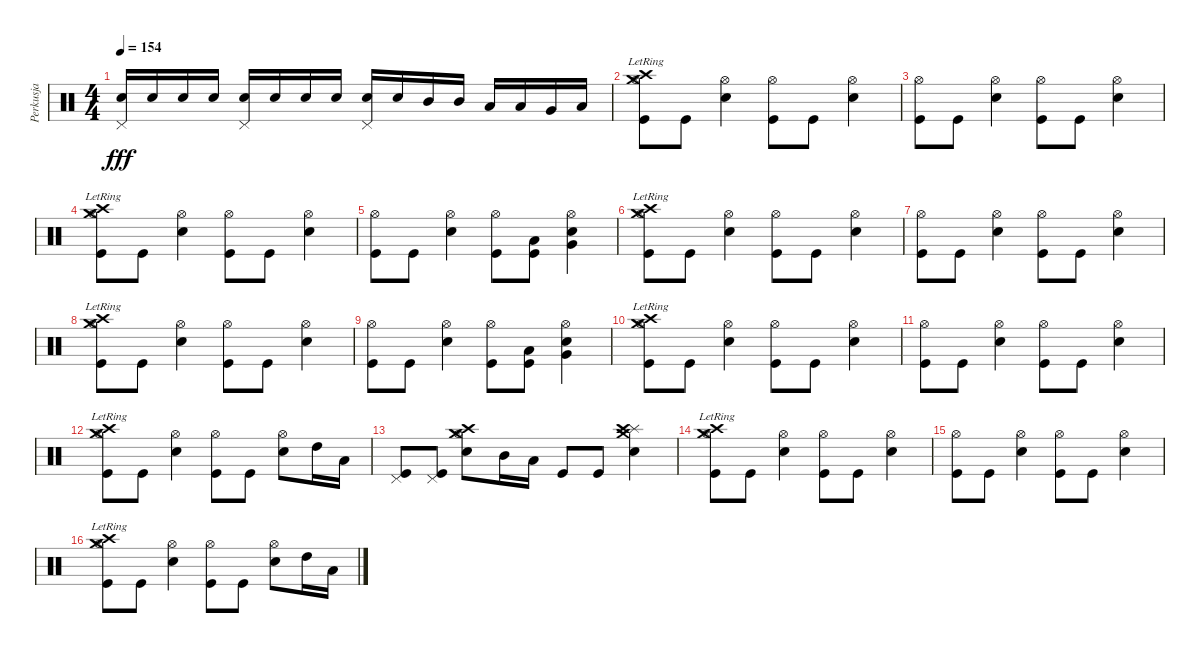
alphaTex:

\track ("Perkusja" "Perkusja") {instrument percussion}
\staff {score}
\articulation defaults
\ts (4 4)
\tempo 154
\clef neutral
\ks c
("Pedal Hi-Hat (hit)" "Snare (hit) 2").16{dy fff} "Snare (hit) 2".16 "Snare (hit) 2".16 "Snare (hit) 2".16 ("Pedal Hi-Hat (hit)" "Snare (hit) 2").16 "Snare (hit) 2".16 "Snare (hit) 2".16 "Snare (hit) 2".16 ("Pedal Hi-Hat (hit)" "Snare (hit) 2").16 "Snare (hit) 2".16 "Mid Tom (hit)".16 "Mid Tom (hit)".16 "Low Tom (hit)".16 "Low Tom (hit)".16 "Very Low Tom (hit)".16 "Low Floor Tom (hit)".16 |
("Crash high (hit)"{lr} "Hi-Hat (open)" "Crash medium (hit)"{lr} "Kick (hit)").8 "Kick (hit)".8 ("Hi-Hat (open)" "Snare (hit) 2").4 ("Hi-Hat (open)" "Kick (hit)").8 "Kick (hit)".8 ("Hi-Hat (open)" "Snare (hit) 2").4 |
("Hi-Hat (open)" "Kick (hit)").8 "Kick (hit)".8 ("Hi-Hat (open)" "Snare (hit) 2").4 ("Hi-Hat (open)" "Kick (hit)").8 "Kick (hit)".8 ("Hi-Hat (open)" "Snare (hit) 2").4 |
("Crash high (hit)"{lr} "Hi-Hat (open)" "Crash medium (hit)"{lr} "Kick (hit)").8 "Kick (hit)".8 ("Hi-Hat (open)" "Snare (hit) 2").4 ("Hi-Hat (open)" "Kick (hit)").8 "Kick (hit)".8 ("Hi-Hat (open)" "Snare (hit) 2").4 |
("Hi-Hat (open)" "Kick (hit)").8 "Kick (hit)".8 ("Hi-Hat (open)" "Snare (hit) 2").4 ("Hi-Hat (open)" "Kick (hit)").8 ("Low Tom (hit)" "Kick (hit)").8 ("Hi-Hat (open)" "Very Low Tom (hit)" "Snare (hit) 2").4 |
("Crash high (hit)"{lr} "Hi-Hat (open)" "Crash medium (hit)"{lr} "Kick (hit)").8 "Kick (hit)".8 ("Hi-Hat (open)" "Snare (hit) 2").4 ("Hi-Hat (open)" "Kick (hit)").8 "Kick (hit)".8 ("Hi-Hat (open)" "Snare (hit) 2").4 |
("Hi-Hat (open)" "Kick (hit)").8 "Kick (hit)".8 ("Hi-Hat (open)" "Snare (hit) 2").4 ("Hi-Hat (open)" "Kick (hit)").8 "Kick (hit)".8 ("Hi-Hat (open)" "Snare (hit) 2").4 |
("Crash high (hit)"{lr} "Hi-Hat (open)" "Crash medium (hit)"{lr} "Kick (hit)").8 "Kick (hit)".8 ("Hi-Hat (open)" "Snare (hit) 2").4 ("Hi-Hat (open)" "Kick (hit)").8 "Kick (hit)".8 ("Hi-Hat (open)" "Snare (hit) 2").4 |
("Hi-Hat (open)" "Kick (hit)").8 "Kick (hit)".8 ("Hi-Hat (open)" "Snare (hit) 2").4 ("Hi-Hat (open)" "Kick (hit)").8 ("Low Tom (hit)" "Kick (hit)").8 ("Hi-Hat (open)" "Very Low Tom (hit)" "Snare (hit) 2").4 |
("Crash high (hit)"{lr} "Hi-Hat (open)" "Crash medium (hit)"{lr} "Kick (hit)").8 "Kick (hit)".8 ("Hi-Hat (open)" "Snare (hit) 2").4 ("Hi-Hat (open)" "Kick (hit)").8 "Kick (hit)".8 ("Hi-Hat (open)" "Snare (hit) 2").4 |
("Hi-Hat (open)" "Kick (hit)").8 "Kick (hit)".8 ("Hi-Hat (open)" "Snare (hit) 2").4 ("Hi-Hat (open)" "Kick (hit)").8 "Kick (hit)".8 ("Hi-Hat (open)" "Snare (hit) 2").4 |
("Crash high (hit)"{lr} "Hi-Hat (open)" "Crash medium (hit)"{lr} "Kick (hit)").8 "Kick (hit)".8 ("Hi-Hat (open)" "Snare (hit) 2").4 ("Hi-Hat (open)" "Kick (hit)").8 "Kick (hit)".8 ("Hi-Hat (open)" "Snare (hit) 2").8 "High Tom (hit)".16 "Low Tom (hit)".16 |
("Pedal Hi-Hat (hit)" "Kick (hit)").8 ("Pedal Hi-Hat (hit)" "Kick (hit)").8 ("Crash high (hit)" "Crash medium (hit)" "Hi-Hat (open)" "Snare (hit) 2").8 "Mid Tom (hit)".16 "Low Tom (hit)".16 "Kick (hit)".8 "Kick (hit)".8 ("Crash medium (hit)" "Splash (hit)" "Crash high (hit)" "Snare (hit) 2").4 |
("Crash high (hit)"{lr} "Hi-Hat (open)" "Crash medium (hit)"{lr} "Kick (hit)").8 "Kick (hit)".8 ("Hi-Hat (open)" "Snare (hit) 2").4 ("Hi-Hat (open)" "Kick (hit)").8 "Kick (hit)".8 ("Hi-Hat (open)" "Snare (hit) 2").4 |
("Hi-Hat (open)" "Kick (hit)").8 "Kick (hit)".8 ("Hi-Hat (open)" "Snare (hit) 2").4 ("Hi-Hat (open)" "Kick (hit)").8 "Kick (hit)".8 ("Hi-Hat (open)" "Snare (hit) 2").4 |
("Crash high (hit)"{lr} "Hi-Hat (open)" "Crash medium (hit)"{lr} "Kick (hit)").8 "Kick (hit)".8 ("Hi-Hat (open)" "Snare (hit) 2").4 ("Hi-Hat (open)" "Kick (hit)").8 "Kick (hit)".8 ("Hi-Hat (open)" "Snare (hit) 2").8 "High Tom (hit)".16 "Low Tom (hit)".16
